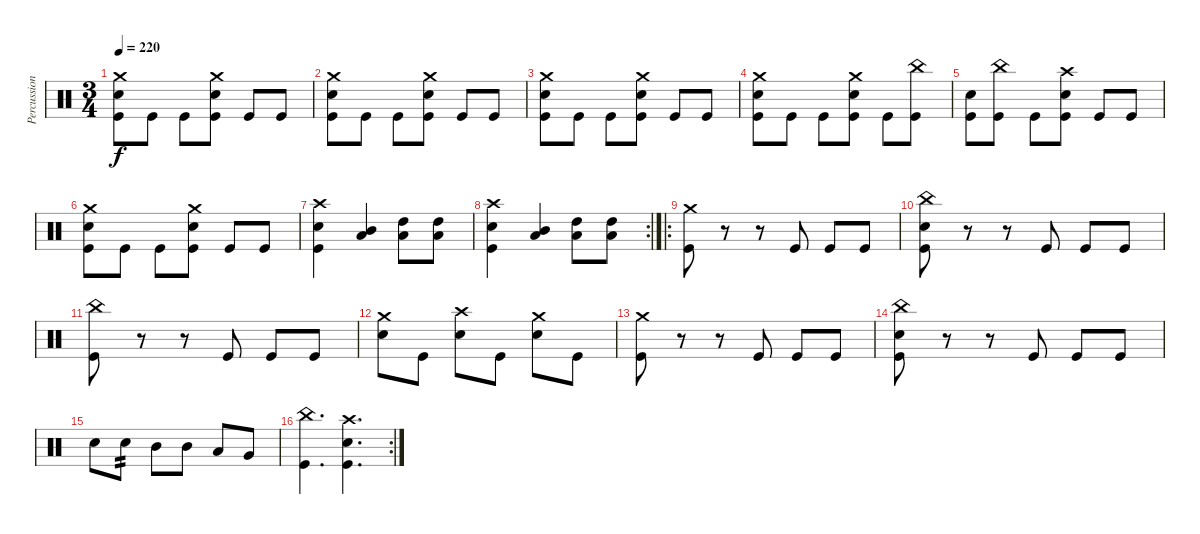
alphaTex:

\track ("Percussion" "Percussion") {instrument percussion}
\staff {score}
\articulation defaults
\ts (3 4)
\tempo 220
\clef neutral
\ks c
("Crash medium (hit)" "Electric Snare (hit)" "Kick (hit)").8{dy f} "Kick (hit)".8 "Kick (hit)".8 ("Crash medium (hit)" "Electric Snare (hit)" "Kick (hit)").8 "Kick (hit)".8 "Kick (hit)".8 |
("Crash medium (hit)" "Electric Snare (hit)" "Kick (hit)").8 "Kick (hit)".8 "Kick (hit)".8 ("Crash medium (hit)" "Electric Snare (hit)" "Kick (hit)").8 "Kick (hit)".8 "Kick (hit)".8 |
("Crash medium (hit)" "Electric Snare (hit)" "Kick (hit)").8 "Kick (hit)".8 "Kick (hit)".8 ("Crash medium (hit)" "Electric Snare (hit)" "Kick (hit)").8 "Kick (hit)".8 "Kick (hit)".8 |
("Crash medium (hit)" "Electric Snare (hit)" "Kick (hit)").8 "Kick (hit)".8 "Kick (hit)".8 ("Crash medium (hit)" "Electric Snare (hit)" "Kick (hit)").8 "Kick (hit)".8 ("China (hit)" "Kick (hit)").8 |
("Electric Snare (hit)" "Kick (hit)").8 ("China (hit)" "Kick (hit)").8 "Kick (hit)".8 ("Crash high (hit)" "Electric Snare (hit)" "Kick (hit)").8 "Kick (hit)".8 "Kick (hit)".8 |
("Crash medium (hit)" "Electric Snare (hit)" "Kick (hit)").8 "Kick (hit)".8 "Kick (hit)".8 ("Crash medium (hit)" "Electric Snare (hit)" "Kick (hit)").8 "Kick (hit)".8 "Kick (hit)".8 |
("Crash high (hit)" "Electric Snare (hit)" "Kick (hit)").4 ("Mid Tom (hit)" "Low Floor Tom (hit)").4 ("High Tom (hit)" "Low Floor Tom (hit)").8 ("High Tom (hit)" "Low Floor Tom (hit)").8 |
\rc 2
("Crash high (hit)" "Electric Snare (hit)" "Kick (hit)").4 ("Mid Tom (hit)" "Low Floor Tom (hit)").4 ("High Tom (hit)" "Low Floor Tom (hit)").8 ("High Tom (hit)" "Low Floor Tom (hit)").8 |
\ro
("Crash medium (hit)" "Kick (hit)").8 r.8 r.8 "Kick (hit)".8 "Kick (hit)".8 "Kick (hit)".8 |
("China (hit)" "Electric Snare (hit)" "Kick (hit)").8 r.8 r.8 "Kick (hit)".8 "Kick (hit)".8 "Kick (hit)".8 |
("China (hit)" "Kick (hit)").8 r.8 r.8 "Kick (hit)".8 "Kick (hit)".8 "Kick (hit)".8 |
("Crash medium (hit)" "Electric Snare (hit)").8 "Kick (hit)".8 ("Crash high (hit)" "Electric Snare (hit)").8 "Kick (hit)".8 ("Crash medium (hit)" "Electric Snare (hit)").8 "Kick (hit)".8 |
("Crash medium (hit)" "Kick (hit)").8 r.8 r.8 "Kick (hit)".8 "Kick (hit)".8 "Kick (hit)".8 |
("China (hit)" "Electric Snare (hit)" "Kick (hit)").8 r.8 r.8 "Kick (hit)".8 "Kick (hit)".8 "Kick (hit)".8 |
"Electric Snare (hit)".8 "Electric Snare (hit)".8{tp 2} "Mid Tom (hit)".8 "Mid Tom (hit)".8 "Low Tom (hit)".8 "Very Low Tom (hit)".8 |
\rc 2
("China (hit)" "Kick (hit)").4{d} ("Crash high (hit)" "Electric Snare (hit)" "Kick (hit)").4{d}
